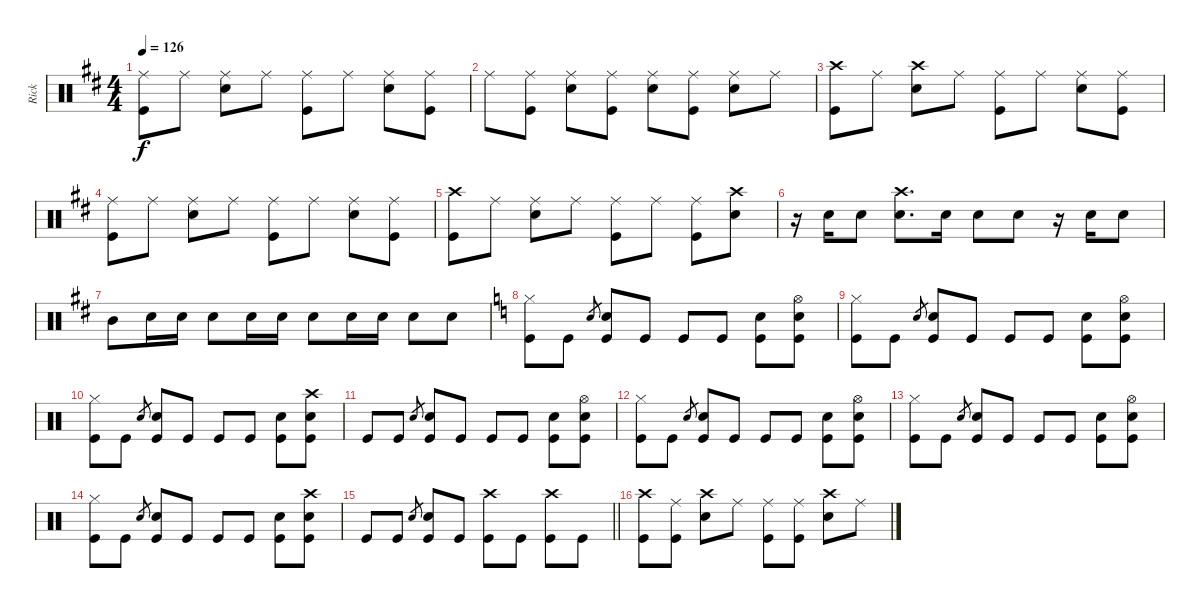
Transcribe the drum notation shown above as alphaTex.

\track ("Rick" "Rick") {instrument percussion}
\staff {score}
\articulation defaults
\ts (4 4)
\tempo 126
\clef neutral
\ks bminor
("Ride (middle)" "Kick (hit)").8{dy f} "Ride (middle)".8 ("Ride (middle)" "Snare (hit) 2").8 "Ride (middle)".8 ("Ride (middle)" "Kick (hit)").8 "Ride (middle)".8 ("Ride (middle)" "Snare (hit) 2").8 ("Ride (middle)" "Kick (hit)").8 |
"Ride (middle)".8 ("Ride (middle)" "Kick (hit)").8 ("Ride (middle)" "Snare (hit) 2").8 ("Ride (middle)" "Kick (hit)").8 ("Ride (middle)" "Snare (hit) 2").8 ("Ride (middle)" "Kick (hit)").8 ("Ride (middle)" "Snare (hit) 2").8 "Ride (middle)".8 |
("Crash high (hit)" "Kick (hit)").8 "Ride (middle)".8 ("Crash high (hit)" "Snare (hit) 2").8 "Ride (middle)".8 ("Ride (middle)" "Kick (hit)").8 "Ride (middle)".8 ("Ride (middle)" "Snare (hit) 2").8 ("Ride (middle)" "Kick (hit)").8 |
("Ride (middle)" "Kick (hit)").8 "Ride (middle)".8 ("Ride (middle)" "Snare (hit) 2").8 "Ride (middle)".8 ("Ride (middle)" "Kick (hit)").8 "Ride (middle)".8 ("Ride (middle)" "Snare (hit) 2").8 ("Ride (middle)" "Kick (hit)").8 |
("Crash high (hit)" "Kick (hit)").8 "Ride (middle)".8 ("Ride (middle)" "Snare (hit) 2").8 "Ride (middle)".8 ("Ride (middle)" "Kick (hit)").8 "Ride (middle)".8 ("Ride (middle)" "Kick (hit)").8 ("Crash high (hit)" "Snare (hit) 2").8 |
r.16 "Snare (hit) 2".16 "Snare (hit) 2".8 ("Crash high (hit)" "Snare (hit) 2").8{d} "Snare (hit) 2".16 "Snare (hit) 2".8 "Snare (hit) 2".8 r.16 "Snare (hit) 2".16 "Snare (hit) 2".8 |
"Mid Tom (hit)".8 "Snare (hit) 2".16 "Snare (hit) 2".16 "Snare (hit) 2".8 "Snare (hit) 2".16 "Snare (hit) 2".16 "Snare (hit) 2".8 "Snare (hit) 2".16 "Snare (hit) 2".16 "Snare (hit) 2".8 "Snare (hit) 2".8 |
\ks aminor
("Hi-Hat (closed)" "Kick (hit)").8 "Kick (hit)".8 "Snare (hit) 2".8{gr} ("Snare (hit) 2" "Kick (hit)").8 "Kick (hit)".8 "Kick (hit)".8 "Kick (hit)".8 ("Snare (hit) 2" "Kick (hit)").8 ("Hi-Hat (open)" "Snare (hit) 2" "Kick (hit)").8 |
("Hi-Hat (closed)" "Kick (hit)").8 "Kick (hit)".8 "Snare (hit) 2".8{gr} ("Snare (hit) 2" "Kick (hit)").8 "Kick (hit)".8 "Kick (hit)".8 "Kick (hit)".8 ("Snare (hit) 2" "Kick (hit)").8 ("Hi-Hat (open)" "Snare (hit) 2" "Kick (hit)").8 |
("Hi-Hat (closed)" "Kick (hit)").8 "Kick (hit)".8 "Snare (hit) 2".8{gr} ("Snare (hit) 2" "Kick (hit)").8 "Kick (hit)".8 "Kick (hit)".8 "Kick (hit)".8 ("Snare (hit) 2" "Kick (hit)").8 ("Crash high (hit)" "Snare (hit) 2" "Kick (hit)").8 |
"Kick (hit)".8 "Kick (hit)".8 "Snare (hit) 2".8{gr} ("Snare (hit) 2" "Kick (hit)").8 "Kick (hit)".8 "Kick (hit)".8 "Kick (hit)".8 ("Snare (hit) 2" "Kick (hit)").8 ("Hi-Hat (open)" "Snare (hit) 2" "Kick (hit)").8 |
("Hi-Hat (closed)" "Kick (hit)").8 "Kick (hit)".8 "Snare (hit) 2".8{gr} ("Snare (hit) 2" "Kick (hit)").8 "Kick (hit)".8 "Kick (hit)".8 "Kick (hit)".8 ("Snare (hit) 2" "Kick (hit)").8 ("Hi-Hat (open)" "Snare (hit) 2" "Kick (hit)").8 |
("Hi-Hat (closed)" "Kick (hit)").8 "Kick (hit)".8 "Snare (hit) 2".8{gr} ("Snare (hit) 2" "Kick (hit)").8 "Kick (hit)".8 "Kick (hit)".8 "Kick (hit)".8 ("Snare (hit) 2" "Kick (hit)").8 ("Hi-Hat (open)" "Snare (hit) 2" "Kick (hit)").8 |
("Hi-Hat (closed)" "Kick (hit)").8 "Kick (hit)".8 "Snare (hit) 2".8{gr} ("Snare (hit) 2" "Kick (hit)").8 "Kick (hit)".8 "Kick (hit)".8 "Kick (hit)".8 ("Snare (hit) 2" "Kick (hit)").8 ("Crash high (hit)" "Snare (hit) 2" "Kick (hit)").8 |
\barLineRight lightlight "Kick (hit)".8 "Kick (hit)".8 "Snare (hit) 2".8{gr}
("Snare (hit) 2" "Kick (hit)").8 "Kick (hit)".8 ("Crash high (hit)" "Kick (hit)").8 "Kick (hit)".8 ("Crash high (hit)" "Kick (hit)").8 "Kick (hit)".8 |
("Crash high (hit)" "Kick (hit)").8 ("Ride (middle)" "Kick (hit)").8 ("Crash high (hit)" "Snare (hit) 2").8 "Ride (middle)".8 ("Ride (middle)" "Kick (hit)").8 ("Ride (middle)" "Kick (hit)").8 ("Crash high (hit)" "Snare (hit) 2").8 "Ride (middle)".8
